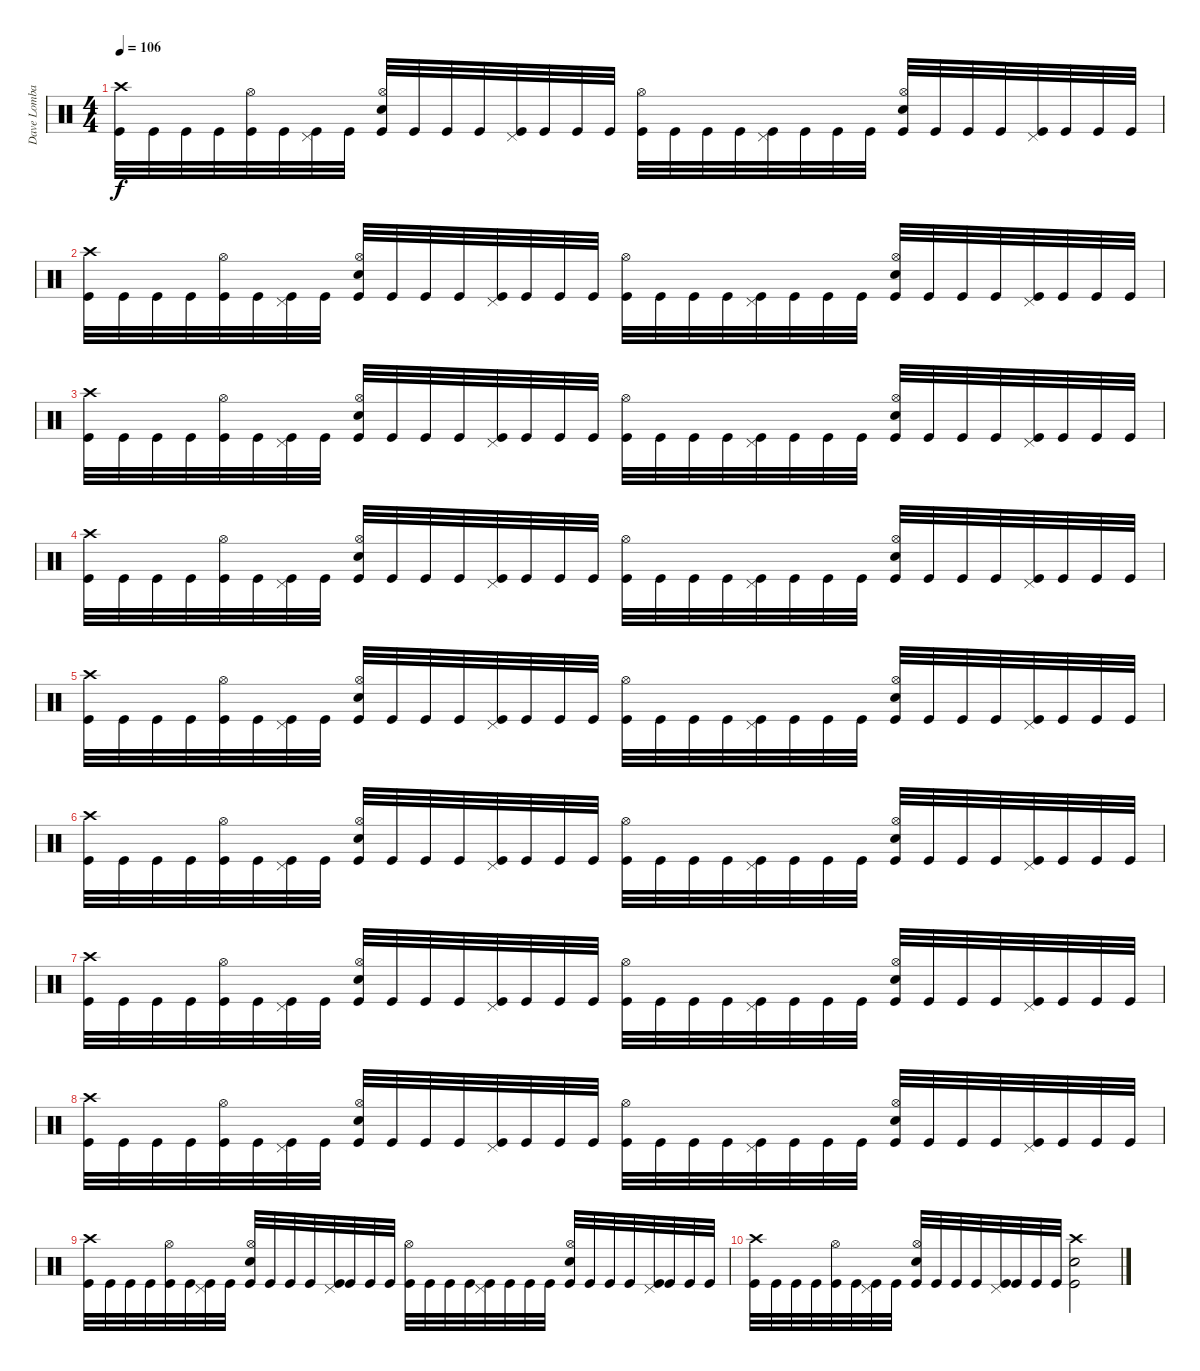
\track ("Dave Lombardo" "Dave Lomba") {instrument percussion}
\staff {score}
\articulation defaults
\ts (4 4)
\tempo 106
\clef neutral
\ks c
("Crash high (hit)" "Kick (hit)").32{dy f} "Kick (hit)".32 "Kick (hit)".32 "Kick (hit)".32 ("Hi-Hat (open)" "Kick (hit)").32 "Kick (hit)".32 ("Pedal Hi-Hat (hit)" "Kick (hit)").32 "Kick (hit)".32 ("Hi-Hat (open)" "Snare (hit) 2" "Kick (hit)").32 "Kick (hit)".32 "Kick (hit)".32 "Kick (hit)".32 ("Pedal Hi-Hat (hit)" "Kick (hit)").32 "Kick (hit)".32 "Kick (hit)".32 "Kick (hit)".32 ("Hi-Hat (open)" "Kick (hit)").32 "Kick (hit)".32 "Kick (hit)".32 "Kick (hit)".32 ("Pedal Hi-Hat (hit)" "Kick (hit)").32 "Kick (hit)".32 "Kick (hit)".32 "Kick (hit)".32 ("Hi-Hat (open)" "Snare (hit) 2" "Kick (hit)").32 "Kick (hit)".32 "Kick (hit)".32 "Kick (hit)".32 ("Pedal Hi-Hat (hit)" "Kick (hit)").32 "Kick (hit)".32 "Kick (hit)".32 "Kick (hit)".32 |
("Crash high (hit)" "Kick (hit)").32 "Kick (hit)".32 "Kick (hit)".32 "Kick (hit)".32 ("Hi-Hat (open)" "Kick (hit)").32 "Kick (hit)".32 ("Pedal Hi-Hat (hit)" "Kick (hit)").32 "Kick (hit)".32 ("Hi-Hat (open)" "Snare (hit) 2" "Kick (hit)").32 "Kick (hit)".32 "Kick (hit)".32 "Kick (hit)".32 ("Pedal Hi-Hat (hit)" "Kick (hit)").32 "Kick (hit)".32 "Kick (hit)".32 "Kick (hit)".32 ("Hi-Hat (open)" "Kick (hit)").32 "Kick (hit)".32 "Kick (hit)".32 "Kick (hit)".32 ("Pedal Hi-Hat (hit)" "Kick (hit)").32 "Kick (hit)".32 "Kick (hit)".32 "Kick (hit)".32 ("Hi-Hat (open)" "Snare (hit) 2" "Kick (hit)").32 "Kick (hit)".32 "Kick (hit)".32 "Kick (hit)".32 ("Pedal Hi-Hat (hit)" "Kick (hit)").32 "Kick (hit)".32 "Kick (hit)".32 "Kick (hit)".32 |
("Crash high (hit)" "Kick (hit)").32 "Kick (hit)".32 "Kick (hit)".32 "Kick (hit)".32 ("Hi-Hat (open)" "Kick (hit)").32 "Kick (hit)".32 ("Pedal Hi-Hat (hit)" "Kick (hit)").32 "Kick (hit)".32 ("Hi-Hat (open)" "Snare (hit) 2" "Kick (hit)").32 "Kick (hit)".32 "Kick (hit)".32 "Kick (hit)".32 ("Pedal Hi-Hat (hit)" "Kick (hit)").32 "Kick (hit)".32 "Kick (hit)".32 "Kick (hit)".32 ("Hi-Hat (open)" "Kick (hit)").32 "Kick (hit)".32 "Kick (hit)".32 "Kick (hit)".32 ("Pedal Hi-Hat (hit)" "Kick (hit)").32 "Kick (hit)".32 "Kick (hit)".32 "Kick (hit)".32 ("Hi-Hat (open)" "Snare (hit) 2" "Kick (hit)").32 "Kick (hit)".32 "Kick (hit)".32 "Kick (hit)".32 ("Pedal Hi-Hat (hit)" "Kick (hit)").32 "Kick (hit)".32 "Kick (hit)".32 "Kick (hit)".32 |
("Crash high (hit)" "Kick (hit)").32 "Kick (hit)".32 "Kick (hit)".32 "Kick (hit)".32 ("Hi-Hat (open)" "Kick (hit)").32 "Kick (hit)".32 ("Pedal Hi-Hat (hit)" "Kick (hit)").32 "Kick (hit)".32 ("Hi-Hat (open)" "Snare (hit) 2" "Kick (hit)").32 "Kick (hit)".32 "Kick (hit)".32 "Kick (hit)".32 ("Pedal Hi-Hat (hit)" "Kick (hit)").32 "Kick (hit)".32 "Kick (hit)".32 "Kick (hit)".32 ("Hi-Hat (open)" "Kick (hit)").32 "Kick (hit)".32 "Kick (hit)".32 "Kick (hit)".32 ("Pedal Hi-Hat (hit)" "Kick (hit)").32 "Kick (hit)".32 "Kick (hit)".32 "Kick (hit)".32 ("Hi-Hat (open)" "Snare (hit) 2" "Kick (hit)").32 "Kick (hit)".32 "Kick (hit)".32 "Kick (hit)".32 ("Pedal Hi-Hat (hit)" "Kick (hit)").32 "Kick (hit)".32 "Kick (hit)".32 "Kick (hit)".32 |
("Crash high (hit)" "Kick (hit)").32 "Kick (hit)".32 "Kick (hit)".32 "Kick (hit)".32 ("Hi-Hat (open)" "Kick (hit)").32 "Kick (hit)".32 ("Pedal Hi-Hat (hit)" "Kick (hit)").32 "Kick (hit)".32 ("Hi-Hat (open)" "Snare (hit) 2" "Kick (hit)").32 "Kick (hit)".32 "Kick (hit)".32 "Kick (hit)".32 ("Pedal Hi-Hat (hit)" "Kick (hit)").32 "Kick (hit)".32 "Kick (hit)".32 "Kick (hit)".32 ("Hi-Hat (open)" "Kick (hit)").32 "Kick (hit)".32 "Kick (hit)".32 "Kick (hit)".32 ("Pedal Hi-Hat (hit)" "Kick (hit)").32 "Kick (hit)".32 "Kick (hit)".32 "Kick (hit)".32 ("Hi-Hat (open)" "Snare (hit) 2" "Kick (hit)").32 "Kick (hit)".32 "Kick (hit)".32 "Kick (hit)".32 ("Pedal Hi-Hat (hit)" "Kick (hit)").32 "Kick (hit)".32 "Kick (hit)".32 "Kick (hit)".32 |
("Crash high (hit)" "Kick (hit)").32 "Kick (hit)".32 "Kick (hit)".32 "Kick (hit)".32 ("Hi-Hat (open)" "Kick (hit)").32 "Kick (hit)".32 ("Pedal Hi-Hat (hit)" "Kick (hit)").32 "Kick (hit)".32 ("Hi-Hat (open)" "Snare (hit) 2" "Kick (hit)").32 "Kick (hit)".32 "Kick (hit)".32 "Kick (hit)".32 ("Pedal Hi-Hat (hit)" "Kick (hit)").32 "Kick (hit)".32 "Kick (hit)".32 "Kick (hit)".32 ("Hi-Hat (open)" "Kick (hit)").32 "Kick (hit)".32 "Kick (hit)".32 "Kick (hit)".32 ("Pedal Hi-Hat (hit)" "Kick (hit)").32 "Kick (hit)".32 "Kick (hit)".32 "Kick (hit)".32 ("Hi-Hat (open)" "Snare (hit) 2" "Kick (hit)").32 "Kick (hit)".32 "Kick (hit)".32 "Kick (hit)".32 ("Pedal Hi-Hat (hit)" "Kick (hit)").32 "Kick (hit)".32 "Kick (hit)".32 "Kick (hit)".32 |
("Crash high (hit)" "Kick (hit)").32 "Kick (hit)".32 "Kick (hit)".32 "Kick (hit)".32 ("Hi-Hat (open)" "Kick (hit)").32 "Kick (hit)".32 ("Pedal Hi-Hat (hit)" "Kick (hit)").32 "Kick (hit)".32 ("Hi-Hat (open)" "Snare (hit) 2" "Kick (hit)").32 "Kick (hit)".32 "Kick (hit)".32 "Kick (hit)".32 ("Pedal Hi-Hat (hit)" "Kick (hit)").32 "Kick (hit)".32 "Kick (hit)".32 "Kick (hit)".32 ("Hi-Hat (open)" "Kick (hit)").32 "Kick (hit)".32 "Kick (hit)".32 "Kick (hit)".32 ("Pedal Hi-Hat (hit)" "Kick (hit)").32 "Kick (hit)".32 "Kick (hit)".32 "Kick (hit)".32 ("Hi-Hat (open)" "Snare (hit) 2" "Kick (hit)").32 "Kick (hit)".32 "Kick (hit)".32 "Kick (hit)".32 ("Pedal Hi-Hat (hit)" "Kick (hit)").32 "Kick (hit)".32 "Kick (hit)".32 "Kick (hit)".32 |
("Crash high (hit)" "Kick (hit)").32 "Kick (hit)".32 "Kick (hit)".32 "Kick (hit)".32 ("Hi-Hat (open)" "Kick (hit)").32 "Kick (hit)".32 ("Pedal Hi-Hat (hit)" "Kick (hit)").32 "Kick (hit)".32 ("Hi-Hat (open)" "Snare (hit) 2" "Kick (hit)").32 "Kick (hit)".32 "Kick (hit)".32 "Kick (hit)".32 ("Pedal Hi-Hat (hit)" "Kick (hit)").32 "Kick (hit)".32 "Kick (hit)".32 "Kick (hit)".32 ("Hi-Hat (open)" "Kick (hit)").32 "Kick (hit)".32 "Kick (hit)".32 "Kick (hit)".32 ("Pedal Hi-Hat (hit)" "Kick (hit)").32 "Kick (hit)".32 "Kick (hit)".32 "Kick (hit)".32 ("Hi-Hat (open)" "Snare (hit) 2" "Kick (hit)").32 "Kick (hit)".32 "Kick (hit)".32 "Kick (hit)".32 ("Pedal Hi-Hat (hit)" "Kick (hit)").32 "Kick (hit)".32 "Kick (hit)".32 "Kick (hit)".32 |
("Crash high (hit)" "Kick (hit)").32 "Kick (hit)".32 "Kick (hit)".32 "Kick (hit)".32 ("Hi-Hat (open)" "Kick (hit)").32 "Kick (hit)".32 ("Pedal Hi-Hat (hit)" "Kick (hit)").32 "Kick (hit)".32 ("Hi-Hat (open)" "Snare (hit) 2" "Kick (hit)").32 "Kick (hit)".32 "Kick (hit)".32 "Kick (hit)".32 ("Pedal Hi-Hat (hit)" "Kick (hit)").32 "Kick (hit)".32 "Kick (hit)".32 "Kick (hit)".32 ("Hi-Hat (open)" "Kick (hit)").32 "Kick (hit)".32 "Kick (hit)".32 "Kick (hit)".32 ("Pedal Hi-Hat (hit)" "Kick (hit)").32 "Kick (hit)".32 "Kick (hit)".32 "Kick (hit)".32 ("Hi-Hat (open)" "Snare (hit) 2" "Kick (hit)").32 "Kick (hit)".32 "Kick (hit)".32 "Kick (hit)".32 ("Pedal Hi-Hat (hit)" "Kick (hit)").32 "Kick (hit)".32 "Kick (hit)".32 "Kick (hit)".32 |
("Crash high (hit)" "Kick (hit)").32 "Kick (hit)".32 "Kick (hit)".32 "Kick (hit)".32 ("Hi-Hat (open)" "Kick (hit)").32 "Kick (hit)".32 ("Pedal Hi-Hat (hit)" "Kick (hit)").32 "Kick (hit)".32 ("Hi-Hat (open)" "Snare (hit) 2" "Kick (hit)").32 "Kick (hit)".32 "Kick (hit)".32 "Kick (hit)".32 ("Pedal Hi-Hat (hit)" "Kick (hit)").32 "Kick (hit)".32 "Kick (hit)".32 "Kick (hit)".32 ("Crash high (hit)" "Snare (hit) 2" "Kick (hit)").2
